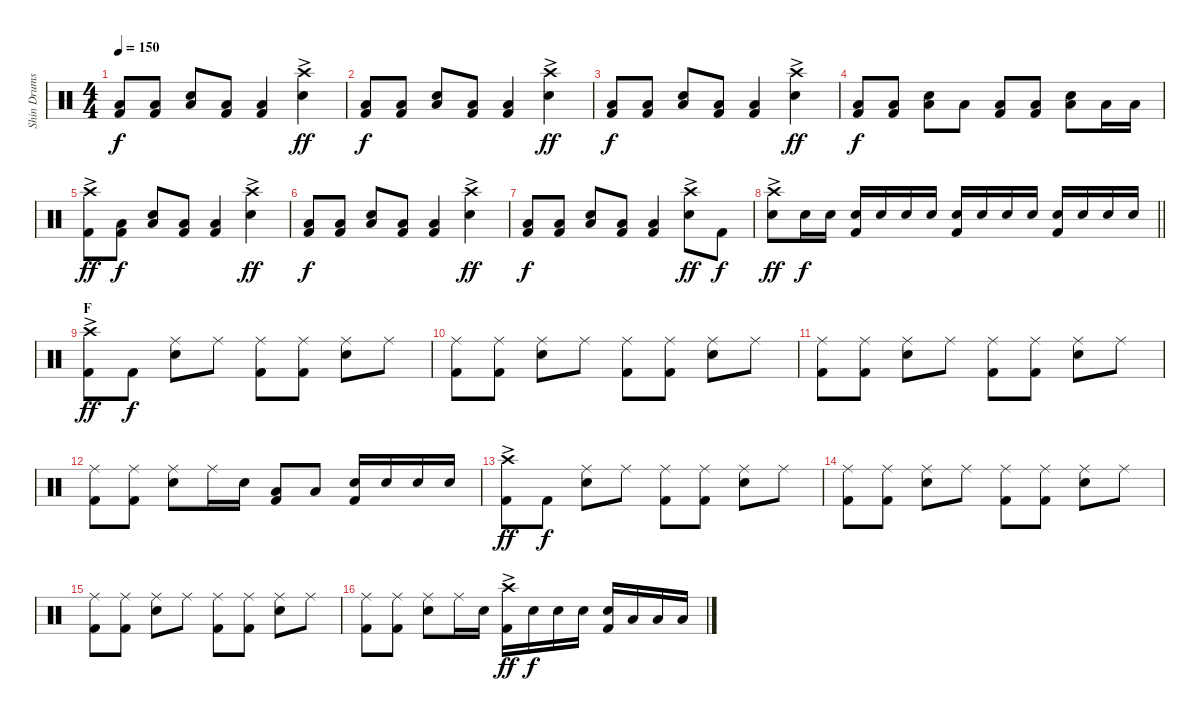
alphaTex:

\track ("Shin Drums" "Shin Drums") {instrument percussion}
\staff {score}
\articulation defaults
\ts (4 4)
\tempo 150
\clef neutral
\ks c
("Low Floor Tom (hit)" "Kick (hit) 2").8{dy f} ("Low Floor Tom (hit)" "Kick (hit) 2").8 ("Snare (hit) 2" "Low Floor Tom (hit)").8 ("Low Floor Tom (hit)" "Kick (hit) 2").8 ("Low Floor Tom (hit)" "Kick (hit) 2").4 ("Crash high (hit)"{ac} "Snare (hit) 2").4{dy ff} |
("Low Floor Tom (hit)" "Kick (hit) 2").8{dy f} ("Low Floor Tom (hit)" "Kick (hit) 2").8 ("Snare (hit) 2" "Low Floor Tom (hit)").8 ("Low Floor Tom (hit)" "Kick (hit) 2").8 ("Low Floor Tom (hit)" "Kick (hit) 2").4 ("Crash high (hit)"{ac} "Snare (hit) 2").4{dy ff} |
("Low Floor Tom (hit)" "Kick (hit) 2").8{dy f} ("Low Floor Tom (hit)" "Kick (hit) 2").8 ("Snare (hit) 2" "Low Floor Tom (hit)").8 ("Low Floor Tom (hit)" "Kick (hit) 2").8 ("Low Floor Tom (hit)" "Kick (hit) 2").4 ("Crash high (hit)"{ac} "Snare (hit) 2").4{dy ff} |
("Low Floor Tom (hit)" "Kick (hit) 2").8{dy f} ("Low Floor Tom (hit)" "Kick (hit) 2").8 ("Snare (hit) 2" "Low Floor Tom (hit)").8 "Low Floor Tom (hit)".8 ("Low Floor Tom (hit)" "Kick (hit) 2").8 ("Low Floor Tom (hit)" "Kick (hit) 2").8 ("Snare (hit) 2" "Low Floor Tom (hit)").8 "Low Floor Tom (hit)".16 "Low Floor Tom (hit)".16 |
("Crash high (hit)"{ac} "Kick (hit) 2").8{dy ff} ("Low Floor Tom (hit)" "Kick (hit) 2").8{dy f} ("Snare (hit) 2" "Low Floor Tom (hit)").8 ("Low Floor Tom (hit)" "Kick (hit) 2").8 ("Low Floor Tom (hit)" "Kick (hit) 2").4 ("Crash high (hit)"{ac} "Snare (hit) 2").4{dy ff} |
("Low Floor Tom (hit)" "Kick (hit) 2").8{dy f} ("Low Floor Tom (hit)" "Kick (hit) 2").8 ("Snare (hit) 2" "Low Floor Tom (hit)").8 ("Low Floor Tom (hit)" "Kick (hit) 2").8 ("Low Floor Tom (hit)" "Kick (hit) 2").4 ("Crash high (hit)"{ac} "Snare (hit) 2").4{dy ff} |
("Low Floor Tom (hit)" "Kick (hit) 2").8{dy f} ("Low Floor Tom (hit)" "Kick (hit) 2").8 ("Snare (hit) 2" "Low Floor Tom (hit)").8 ("Low Floor Tom (hit)" "Kick (hit) 2").8 ("Low Floor Tom (hit)" "Kick (hit) 2").4 ("Crash high (hit)"{ac} "Snare (hit) 2").8{dy ff} "Kick (hit) 2".8{dy f} |
\barLineRight lightlight
("Crash high (hit)"{ac} "Snare (hit) 2").8{dy ff} "Snare (hit) 2".16{dy f} "Snare (hit) 2".16 ("Snare (hit) 2" "Kick (hit) 2").16 "Snare (hit) 2".16 "Snare (hit) 2".16 "Snare (hit) 2".16 ("Snare (hit) 2" "Kick (hit) 2").16 "Snare (hit) 2".16 "Snare (hit) 2".16 "Snare (hit) 2".16 ("Snare (hit) 2" "Kick (hit) 2").16 "Snare (hit) 2".16 "Snare (hit) 2".16 "Snare (hit) 2".16 |
\section ("" "F")
("Crash high (hit)"{ac} "Kick (hit) 2").8{dy ff} "Kick (hit) 2".8{dy f} ("Ride (middle)" "Snare (hit) 2").8 "Ride (middle)".8 ("Ride (middle)" "Kick (hit) 2").8 ("Ride (middle)" "Kick (hit) 2").8 ("Ride (middle)" "Snare (hit) 2").8 "Ride (middle)".8 |
("Ride (middle)" "Kick (hit) 2").8 ("Ride (middle)" "Kick (hit) 2").8 ("Ride (middle)" "Snare (hit) 2").8 "Ride (middle)".8 ("Ride (middle)" "Kick (hit) 2").8 ("Ride (middle)" "Kick (hit) 2").8 ("Ride (middle)" "Snare (hit) 2").8 "Ride (middle)".8 |
("Ride (middle)" "Kick (hit) 2").8 ("Ride (middle)" "Kick (hit) 2").8 ("Ride (middle)" "Snare (hit) 2").8 "Ride (middle)".8 ("Ride (middle)" "Kick (hit) 2").8 ("Ride (middle)" "Kick (hit) 2").8 ("Ride (middle)" "Snare (hit) 2").8 "Ride (middle)".8 |
("Ride (middle)" "Kick (hit) 2").8 ("Ride (middle)" "Kick (hit) 2").8 ("Ride (middle)" "Snare (hit) 2").8 "Ride (middle)".16 "Snare (hit) 2".16 ("Low Tom (hit)" "Kick (hit) 2").8 "Low Floor Tom (hit)".8 ("Snare (hit) 2" "Kick (hit) 2").16 "Snare (hit) 2".16 "Snare (hit) 2".16 "Snare (hit) 2".16 |
("Crash high (hit)"{ac} "Kick (hit) 2").8{dy ff} "Kick (hit) 2".8{dy f} ("Ride (middle)" "Snare (hit) 2").8 "Ride (middle)".8 ("Ride (middle)" "Kick (hit) 2").8 ("Ride (middle)" "Kick (hit) 2").8 ("Ride (middle)" "Snare (hit) 2").8 "Ride (middle)".8 |
("Ride (middle)" "Kick (hit) 2").8 ("Ride (middle)" "Kick (hit) 2").8 ("Ride (middle)" "Snare (hit) 2").8 "Ride (middle)".8 ("Ride (middle)" "Kick (hit) 2").8 ("Ride (middle)" "Kick (hit) 2").8 ("Ride (middle)" "Snare (hit) 2").8 "Ride (middle)".8 |
("Ride (middle)" "Kick (hit) 2").8 ("Ride (middle)" "Kick (hit) 2").8 ("Ride (middle)" "Snare (hit) 2").8 "Ride (middle)".8 ("Ride (middle)" "Kick (hit) 2").8 ("Ride (middle)" "Kick (hit) 2").8 ("Ride (middle)" "Snare (hit) 2").8 "Ride (middle)".8 |
("Ride (middle)" "Kick (hit) 2").8 ("Ride (middle)" "Kick (hit) 2").8 ("Ride (middle)" "Snare (hit) 2").8 "Ride (middle)".16 "Snare (hit) 2".16 ("Crash high (hit)"{ac} "Kick (hit) 2").16{dy ff} "Snare (hit) 2".16{dy f} "Snare (hit) 2".16 "Snare (hit) 2".16 ("Snare (hit) 2" "Kick (hit) 2").16 "Low Tom (hit)".16 "Low Floor Tom (hit)".16 "Low Floor Tom (hit)".16
